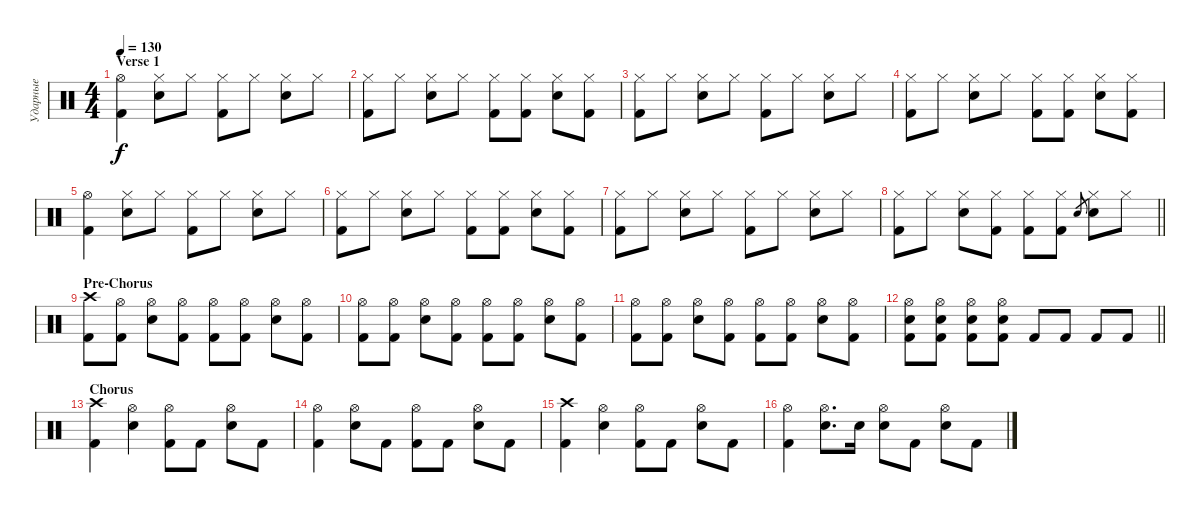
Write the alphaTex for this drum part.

\track ("Ударные" "Ударные") {instrument percussion}
\staff {score}
\articulation defaults
\ts (4 4)
\section ("" "Verse 1")
\tempo 130
\clef neutral
\ks c
("Hi-Hat (open)" "Kick (hit) 2").4{dy f} ("Hi-Hat (closed)" "Snare (hit) 2").8 "Hi-Hat (closed)".8 ("Hi-Hat (closed)" "Kick (hit) 2").8 "Hi-Hat (closed)".8 ("Hi-Hat (closed)" "Snare (hit) 2").8 "Hi-Hat (closed)".8 |
("Hi-Hat (closed)" "Kick (hit) 2").8 "Hi-Hat (closed)".8 ("Hi-Hat (closed)" "Snare (hit) 2").8 "Hi-Hat (closed)".8 ("Hi-Hat (closed)" "Kick (hit) 2").8 ("Hi-Hat (closed)" "Kick (hit) 2").8 ("Hi-Hat (closed)" "Snare (hit) 2").8 ("Hi-Hat (closed)" "Kick (hit) 2").8 |
("Hi-Hat (closed)" "Kick (hit) 2").8 "Hi-Hat (closed)".8 ("Hi-Hat (closed)" "Snare (hit) 2").8 "Hi-Hat (closed)".8 ("Hi-Hat (closed)" "Kick (hit) 2").8 "Hi-Hat (closed)".8 ("Hi-Hat (closed)" "Snare (hit) 2").8 "Hi-Hat (closed)".8 |
("Hi-Hat (closed)" "Kick (hit) 2").8 "Hi-Hat (closed)".8 ("Hi-Hat (closed)" "Snare (hit) 2").8 "Hi-Hat (closed)".8 ("Hi-Hat (closed)" "Kick (hit) 2").8 ("Hi-Hat (closed)" "Kick (hit) 2").8 ("Hi-Hat (closed)" "Snare (hit) 2").8 ("Hi-Hat (closed)" "Kick (hit) 2").8 |
("Hi-Hat (open)" "Kick (hit) 2").4 ("Hi-Hat (closed)" "Snare (hit) 2").8 "Hi-Hat (closed)".8 ("Hi-Hat (closed)" "Kick (hit) 2").8 "Hi-Hat (closed)".8 ("Hi-Hat (closed)" "Snare (hit) 2").8 "Hi-Hat (closed)".8 |
("Hi-Hat (closed)" "Kick (hit) 2").8 "Hi-Hat (closed)".8 ("Hi-Hat (closed)" "Snare (hit) 2").8 "Hi-Hat (closed)".8 ("Hi-Hat (closed)" "Kick (hit) 2").8 ("Hi-Hat (closed)" "Kick (hit) 2").8 ("Hi-Hat (closed)" "Snare (hit) 2").8 ("Hi-Hat (closed)" "Kick (hit) 2").8 |
("Hi-Hat (closed)" "Kick (hit) 2").8 "Hi-Hat (closed)".8 ("Hi-Hat (closed)" "Snare (hit) 2").8 "Hi-Hat (closed)".8 ("Hi-Hat (closed)" "Kick (hit) 2").8 "Hi-Hat (closed)".8 ("Hi-Hat (closed)" "Snare (hit) 2").8 "Hi-Hat (closed)".8 |
\barLineRight lightlight
("Hi-Hat (closed)" "Kick (hit) 2").8 "Hi-Hat (closed)".8 ("Hi-Hat (closed)" "Snare (hit) 2").8 ("Hi-Hat (closed)" "Kick (hit) 2").8 ("Hi-Hat (closed)" "Kick (hit) 2").8 ("Hi-Hat (closed)" "Kick (hit) 2").8 "Snare (hit) 2".8{gr} ("Hi-Hat (closed)" "Snare (hit) 2").8 "Hi-Hat (closed)".8 |
\section ("" "Pre-Chorus")
("Crash high (hit)" "Kick (hit) 2").8 ("Hi-Hat (open)" "Kick (hit) 2").8 ("Hi-Hat (open)" "Snare (hit) 2").8 ("Hi-Hat (open)" "Kick (hit) 2").8 ("Hi-Hat (open)" "Kick (hit) 2").8 ("Hi-Hat (open)" "Kick (hit) 2").8 ("Hi-Hat (open)" "Snare (hit) 2").8 ("Hi-Hat (open)" "Kick (hit) 2").8 |
("Hi-Hat (open)" "Kick (hit) 2").8 ("Hi-Hat (open)" "Kick (hit) 2").8 ("Hi-Hat (open)" "Snare (hit) 2").8 ("Hi-Hat (open)" "Kick (hit) 2").8 ("Hi-Hat (open)" "Kick (hit) 2").8 ("Hi-Hat (open)" "Kick (hit) 2").8 ("Hi-Hat (open)" "Snare (hit) 2").8 ("Hi-Hat (open)" "Kick (hit) 2").8 |
("Hi-Hat (open)" "Kick (hit) 2").8 ("Hi-Hat (open)" "Kick (hit) 2").8 ("Hi-Hat (open)" "Snare (hit) 2").8 ("Hi-Hat (open)" "Kick (hit) 2").8 ("Hi-Hat (open)" "Kick (hit) 2").8 ("Hi-Hat (open)" "Kick (hit) 2").8 ("Hi-Hat (open)" "Snare (hit) 2").8 ("Hi-Hat (open)" "Kick (hit) 2").8 |
\barLineRight lightlight
("Hi-Hat (open)" "Snare (hit) 2" "Kick (hit) 2").8 ("Hi-Hat (open)" "Snare (hit) 2" "Kick (hit) 2").8 ("Hi-Hat (open)" "Snare (hit) 2" "Kick (hit) 2").8 ("Hi-Hat (open)" "Snare (hit) 2" "Kick (hit) 2").8 "Kick (hit) 2".8 "Kick (hit) 2".8 "Kick (hit) 2".8 "Kick (hit) 2".8 |
\section ("" "Chorus")
("Crash high (hit)" "Kick (hit) 2").4 ("Hi-Hat (open)" "Snare (hit) 2").4 ("Hi-Hat (open)" "Kick (hit) 2").8 "Kick (hit) 2".8 ("Hi-Hat (open)" "Snare (hit) 2").8 "Kick (hit) 2".8 |
("Hi-Hat (open)" "Kick (hit) 2").4 ("Hi-Hat (open)" "Snare (hit) 2").8 "Kick (hit) 2".8 ("Hi-Hat (open)" "Kick (hit) 2").8 "Kick (hit) 2".8 ("Hi-Hat (open)" "Snare (hit) 2").8 "Kick (hit) 2".8 |
("Crash high (hit)" "Kick (hit) 2").4 ("Hi-Hat (open)" "Snare (hit) 2").4 ("Hi-Hat (open)" "Kick (hit) 2").8 "Kick (hit) 2".8 ("Hi-Hat (open)" "Snare (hit) 2").8 "Kick (hit) 2".8 |
("Hi-Hat (open)" "Kick (hit) 2").4 ("Hi-Hat (open)" "Snare (hit) 2").8{d} "Snare (hit) 2".16 ("Hi-Hat (open)" "Snare (hit) 2").8 "Kick (hit) 2".8 ("Hi-Hat (open)" "Snare (hit) 2").8 "Kick (hit) 2".8
